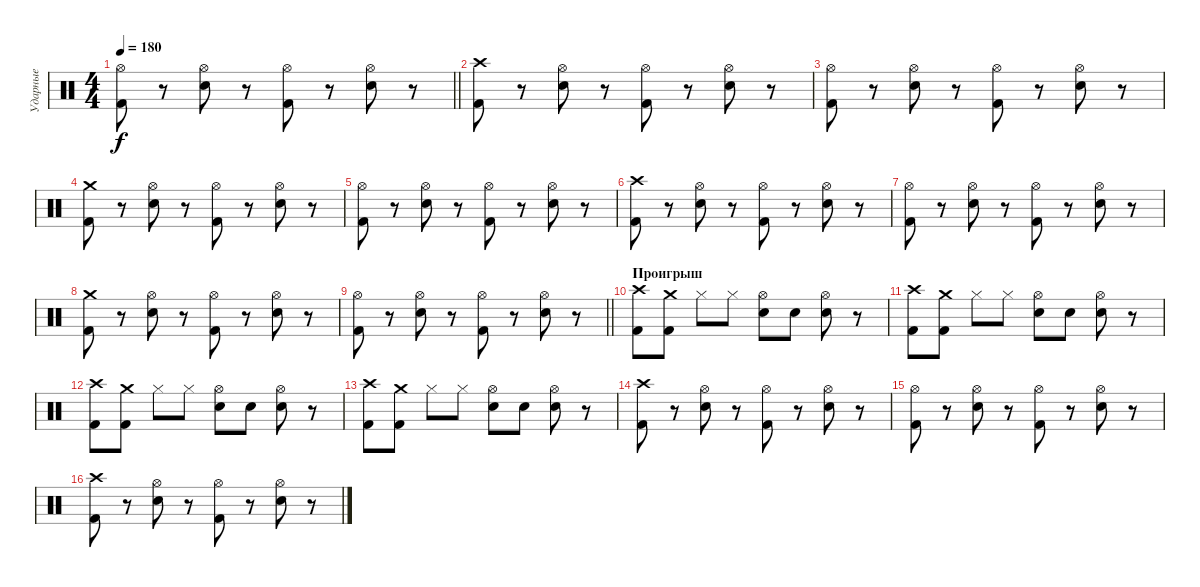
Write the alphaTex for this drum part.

\track ("Ударные" "Ударные") {instrument percussion}
\staff {score}
\articulation defaults
\ts (4 4)
\tempo 180
\clef neutral
\barLineRight lightlight
\ks c
("Hi-Hat (open)" "Kick (hit) 2").8{dy f} r.8 ("Hi-Hat (open)" "Electric Snare (hit)").8 r.8 ("Hi-Hat (open)" "Kick (hit) 2").8 r.8 ("Hi-Hat (open)" "Electric Snare (hit)").8 r.8 |
("Crash high (hit)" "Kick (hit) 2").8 r.8 ("Hi-Hat (open)" "Electric Snare (hit)").8 r.8 ("Hi-Hat (open)" "Kick (hit) 2").8 r.8 ("Hi-Hat (open)" "Electric Snare (hit)").8 r.8 |
("Hi-Hat (open)" "Kick (hit) 2").8 r.8 ("Hi-Hat (open)" "Electric Snare (hit)").8 r.8 ("Hi-Hat (open)" "Kick (hit) 2").8 r.8 ("Hi-Hat (open)" "Electric Snare (hit)").8 r.8 |
("Crash medium (hit)" "Kick (hit) 2").8 r.8 ("Hi-Hat (open)" "Electric Snare (hit)").8 r.8 ("Hi-Hat (open)" "Kick (hit) 2").8 r.8 ("Hi-Hat (open)" "Electric Snare (hit)").8 r.8 |
("Hi-Hat (open)" "Kick (hit) 2").8 r.8 ("Hi-Hat (open)" "Electric Snare (hit)").8 r.8 ("Hi-Hat (open)" "Kick (hit) 2").8 r.8 ("Hi-Hat (open)" "Electric Snare (hit)").8 r.8 |
("Crash high (hit)" "Kick (hit) 2").8 r.8 ("Hi-Hat (open)" "Electric Snare (hit)").8 r.8 ("Hi-Hat (open)" "Kick (hit) 2").8 r.8 ("Hi-Hat (open)" "Electric Snare (hit)").8 r.8 |
("Hi-Hat (open)" "Kick (hit) 2").8 r.8 ("Hi-Hat (open)" "Electric Snare (hit)").8 r.8 ("Hi-Hat (open)" "Kick (hit) 2").8 r.8 ("Hi-Hat (open)" "Electric Snare (hit)").8 r.8 |
("Crash medium (hit)" "Kick (hit) 2").8 r.8 ("Hi-Hat (open)" "Electric Snare (hit)").8 r.8 ("Hi-Hat (open)" "Kick (hit) 2").8 r.8 ("Hi-Hat (open)" "Electric Snare (hit)").8 r.8 |
\barLineRight lightlight
("Hi-Hat (open)" "Kick (hit) 2").8 r.8 ("Hi-Hat (open)" "Electric Snare (hit)").8 r.8 ("Hi-Hat (open)" "Kick (hit) 2").8 r.8 ("Hi-Hat (open)" "Electric Snare (hit)").8 r.8 |
\section ("" "Проигрыш")
("Crash high (hit)" "Kick (hit) 2").8 ("Crash medium (hit)" "Kick (hit) 2").8 "Hi-Hat (closed)".8 "Hi-Hat (closed)".8 ("Electric Snare (hit)" "Hi-Hat (open)").8 "Electric Snare (hit)".8 ("Electric Snare (hit)" "Hi-Hat (open)").8 r.8 |
("Crash high (hit)" "Kick (hit) 2").8 ("Crash medium (hit)" "Kick (hit) 2").8 "Hi-Hat (closed)".8 "Hi-Hat (closed)".8 ("Electric Snare (hit)" "Hi-Hat (open)").8 "Electric Snare (hit)".8 ("Electric Snare (hit)" "Hi-Hat (open)").8 r.8 |
("Crash high (hit)" "Kick (hit) 2").8 ("Crash medium (hit)" "Kick (hit) 2").8 "Hi-Hat (closed)".8 "Hi-Hat (closed)".8 ("Electric Snare (hit)" "Hi-Hat (open)").8 "Electric Snare (hit)".8 ("Electric Snare (hit)" "Hi-Hat (open)").8 r.8 |
("Crash high (hit)" "Kick (hit) 2").8 ("Crash medium (hit)" "Kick (hit) 2").8 "Hi-Hat (closed)".8 "Hi-Hat (closed)".8 ("Electric Snare (hit)" "Hi-Hat (open)").8 "Electric Snare (hit)".8 ("Electric Snare (hit)" "Hi-Hat (open)").8 r.8 |
("Crash high (hit)" "Kick (hit) 2").8 r.8 ("Hi-Hat (open)" "Electric Snare (hit)").8 r.8 ("Hi-Hat (open)" "Kick (hit) 2").8 r.8 ("Hi-Hat (open)" "Electric Snare (hit)").8 r.8 |
("Hi-Hat (open)" "Kick (hit) 2").8 r.8 ("Hi-Hat (open)" "Electric Snare (hit)").8 r.8 ("Hi-Hat (open)" "Kick (hit) 2").8 r.8 ("Hi-Hat (open)" "Electric Snare (hit)").8 r.8 |
("Crash high (hit)" "Kick (hit) 2").8 r.8 ("Hi-Hat (open)" "Electric Snare (hit)").8 r.8 ("Hi-Hat (open)" "Kick (hit) 2").8 r.8 ("Hi-Hat (open)" "Electric Snare (hit)").8 r.8
